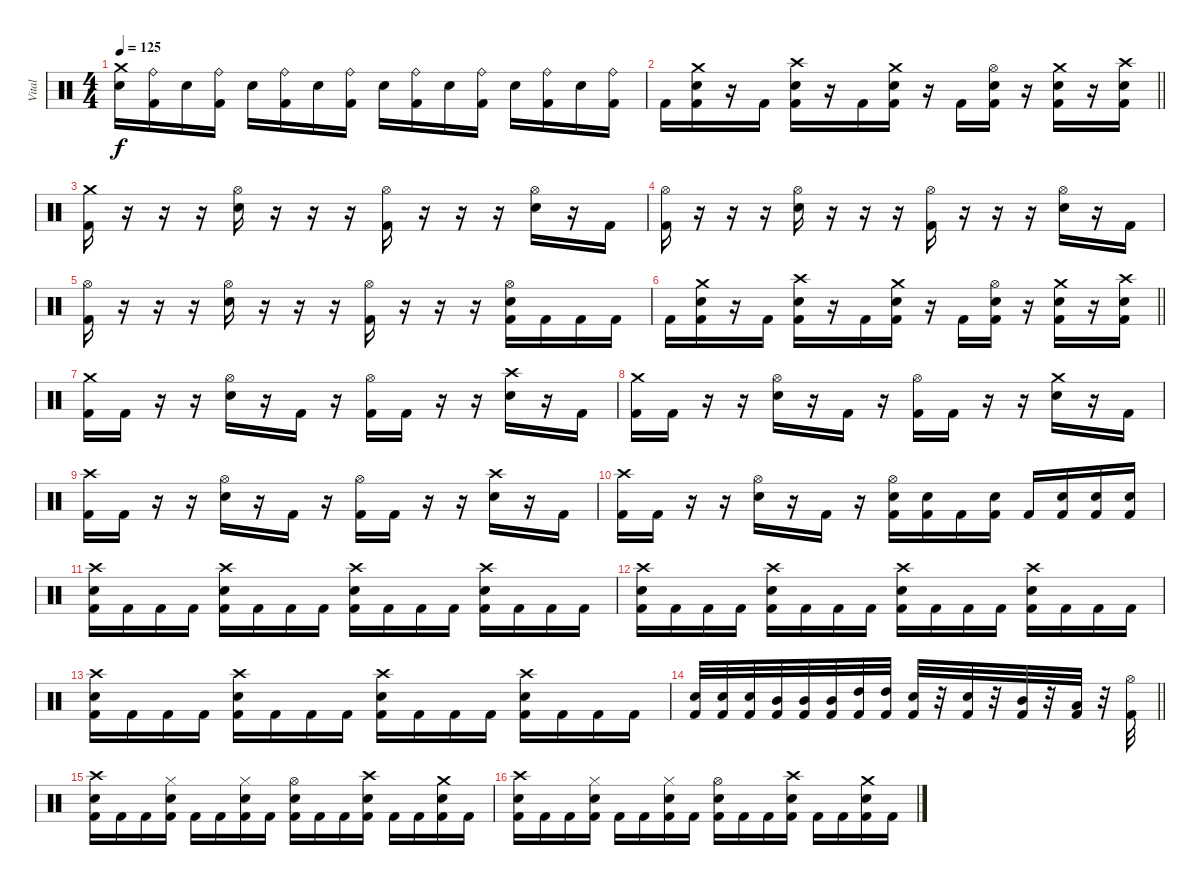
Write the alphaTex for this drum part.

\track ("Vital" "Vital") {instrument percussion}
\staff {score}
\articulation defaults
\ts (4 4)
\tempo 125
\clef neutral
\ks c
("Crash medium (hit)" "Snare (hit) 2").16{dy f} ("Ride (bell)" "Kick (hit) 2").16 "Snare (hit) 2".16 ("Ride (bell)" "Kick (hit) 2").16 "Snare (hit) 2".16 ("Ride (bell)" "Kick (hit) 2").16 "Snare (hit) 2".16 ("Ride (bell)" "Kick (hit) 2").16 "Snare (hit) 2".16 ("Ride (bell)" "Kick (hit) 2").16 "Snare (hit) 2".16 ("Ride (bell)" "Kick (hit) 2").16 "Snare (hit) 2".16 ("Ride (bell)" "Kick (hit) 2").16 "Snare (hit) 2".16 ("Ride (bell)" "Kick (hit) 2").16 |
\barLineRight lightlight "Kick (hit) 2".16
("Crash medium (hit)" "Snare (hit) 2" "Kick (hit) 2").16 r.16 "Kick (hit) 2".16 ("Crash high (hit)" "Snare (hit) 2" "Kick (hit) 2").16 r.16 "Kick (hit) 2".16 ("Crash medium (hit)" "Snare (hit) 2" "Kick (hit) 2").16 r.16 "Kick (hit) 2".16 ("Hi-Hat (open)" "Snare (hit) 2" "Kick (hit) 2").16 r.16 ("Crash medium (hit)" "Snare (hit) 2" "Kick (hit) 2").16 r.16 ("Crash high (hit)" "Snare (hit) 2" "Kick (hit) 2").16 |
("Crash medium (hit)" "Kick (hit) 2").16 r.16 r.16 r.16 ("Hi-Hat (open)" "Snare (hit) 2").16 r.16 r.16 r.16 ("Hi-Hat (open)" "Kick (hit) 2").16 r.16 r.16 r.16 ("Hi-Hat (open)" "Snare (hit) 2").16 r.16 "Kick (hit) 2".16 |
("Hi-Hat (open)" "Kick (hit) 2").16 r.16 r.16 r.16 ("Hi-Hat (open)" "Snare (hit) 2").16 r.16 r.16 r.16 ("Hi-Hat (open)" "Kick (hit) 2").16 r.16 r.16 r.16 ("Hi-Hat (open)" "Snare (hit) 2").16 r.16 "Kick (hit) 2".16 |
("Hi-Hat (open)" "Kick (hit) 2").16 r.16 r.16 r.16 ("Hi-Hat (open)" "Snare (hit) 2").16 r.16 r.16 r.16 ("Hi-Hat (open)" "Kick (hit) 2").16 r.16 r.16 r.16 ("Hi-Hat (open)" "Snare (hit) 2" "Kick (hit) 2").16 "Kick (hit) 2".16 "Kick (hit) 2".16 "Kick (hit) 2".16 |
\barLineRight lightlight "Kick (hit) 2".16
("Crash medium (hit)" "Snare (hit) 2" "Kick (hit) 2").16 r.16 "Kick (hit) 2".16 ("Crash high (hit)" "Snare (hit) 2" "Kick (hit) 2").16 r.16 "Kick (hit) 2".16 ("Crash medium (hit)" "Snare (hit) 2" "Kick (hit) 2").16 r.16 "Kick (hit) 2".16 ("Hi-Hat (open)" "Snare (hit) 2" "Kick (hit) 2").16 r.16 ("Crash medium (hit)" "Snare (hit) 2" "Kick (hit) 2").16 r.16 ("Crash high (hit)" "Snare (hit) 2" "Kick (hit) 2").16 |
("Crash medium (hit)" "Kick (hit) 2").16 "Kick (hit) 2".16 r.16 r.16 ("Hi-Hat (open)" "Snare (hit) 2").16 r.16 "Kick (hit) 2".16 r.16 ("Hi-Hat (open)" "Kick (hit) 2").16 "Kick (hit) 2".16 r.16 r.16 ("Crash high (hit)" "Snare (hit) 2").16 r.16 "Kick (hit) 2".16 |
("Crash medium (hit)" "Kick (hit) 2").16 "Kick (hit) 2".16 r.16 r.16 ("Hi-Hat (open)" "Snare (hit) 2").16 r.16 "Kick (hit) 2".16 r.16 ("Hi-Hat (open)" "Kick (hit) 2").16 "Kick (hit) 2".16 r.16 r.16 ("Crash medium (hit)" "Snare (hit) 2").16 r.16 "Kick (hit) 2".16 |
("Crash high (hit)" "Kick (hit) 2").16 "Kick (hit) 2".16 r.16 r.16 ("Hi-Hat (open)" "Snare (hit) 2").16 r.16 "Kick (hit) 2".16 r.16 ("Hi-Hat (open)" "Kick (hit) 2").16 "Kick (hit) 2".16 r.16 r.16 ("Crash high (hit)" "Snare (hit) 2").16 r.16 "Kick (hit) 2".16 |
("Crash high (hit)" "Kick (hit) 2").16 "Kick (hit) 2".16 r.16 r.16 ("Hi-Hat (open)" "Snare (hit) 2").16 r.16 "Kick (hit) 2".16 r.16 ("Hi-Hat (open)" "Snare (hit) 2" "Kick (hit) 2").16 ("Snare (hit) 2" "Kick (hit) 2").16 "Kick (hit) 2".16 ("Snare (hit) 2" "Kick (hit) 2").16 "Kick (hit) 2".16 ("Snare (hit) 2" "Kick (hit) 2").16 ("Snare (hit) 2" "Kick (hit) 2").16 ("Snare (hit) 2" "Kick (hit) 2").16 |
("Crash high (hit)" "Snare (hit) 2" "Kick (hit) 2").16 "Kick (hit) 2".16 "Kick (hit) 2".16 "Kick (hit) 2".16 ("Crash high (hit)" "Snare (hit) 2" "Kick (hit) 2").16 "Kick (hit) 2".16 "Kick (hit) 2".16 "Kick (hit) 2".16 ("Crash high (hit)" "Snare (hit) 2" "Kick (hit) 2").16 "Kick (hit) 2".16 "Kick (hit) 2".16 "Kick (hit) 2".16 ("Crash high (hit)" "Snare (hit) 2" "Kick (hit) 2").16 "Kick (hit) 2".16 "Kick (hit) 2".16 "Kick (hit) 2".16 |
("Crash high (hit)" "Snare (hit) 2" "Kick (hit) 2").16 "Kick (hit) 2".16 "Kick (hit) 2".16 "Kick (hit) 2".16 ("Crash high (hit)" "Snare (hit) 2" "Kick (hit) 2").16 "Kick (hit) 2".16 "Kick (hit) 2".16 "Kick (hit) 2".16 ("Crash high (hit)" "Snare (hit) 2" "Kick (hit) 2").16 "Kick (hit) 2".16 "Kick (hit) 2".16 "Kick (hit) 2".16 ("Crash high (hit)" "Snare (hit) 2" "Kick (hit) 2").16 "Kick (hit) 2".16 "Kick (hit) 2".16 "Kick (hit) 2".16 |
("Crash high (hit)" "Snare (hit) 2" "Kick (hit) 2").16 "Kick (hit) 2".16 "Kick (hit) 2".16 "Kick (hit) 2".16 ("Crash high (hit)" "Snare (hit) 2" "Kick (hit) 2").16 "Kick (hit) 2".16 "Kick (hit) 2".16 "Kick (hit) 2".16 ("Crash high (hit)" "Snare (hit) 2" "Kick (hit) 2").16 "Kick (hit) 2".16 "Kick (hit) 2".16 "Kick (hit) 2".16 ("Crash high (hit)" "Snare (hit) 2" "Kick (hit) 2").16 "Kick (hit) 2".16 "Kick (hit) 2".16 "Kick (hit) 2".16 |
\barLineRight lightlight
("Snare (hit) 2" "Kick (hit) 2").32 ("Snare (hit) 2" "Kick (hit) 2").32 ("Snare (hit) 2" "Kick (hit) 2").32 ("Mid Tom (hit)" "Kick (hit) 2").32 ("Mid Tom (hit)" "Kick (hit) 2").32 ("Mid Tom (hit)" "Kick (hit) 2").32 ("High Tom (hit)" "Kick (hit) 2").32 ("High Tom (hit)" "Kick (hit) 2").32 ("Snare (hit) 2" "Kick (hit) 2").32 r.32 ("Snare (hit) 2" "Kick (hit) 2").32 r.32 ("Mid Tom (hit)" "Kick (hit) 2").32 r.32 ("Low Tom (hit)" "Kick (hit) 2").32 r.32 ("Hi-Hat (open)" "Kick (hit) 2").32 |
("Crash high (hit)" "Snare (hit) 2" "Kick (hit) 2").16 "Kick (hit) 2".16 "Kick (hit) 2".16 ("Hi-Hat (closed)" "Snare (hit) 2" "Kick (hit) 2").16 "Kick (hit) 2".16 "Kick (hit) 2".16 ("Hi-Hat (closed)" "Snare (hit) 2" "Kick (hit) 2").16 "Kick (hit) 2".16 ("Hi-Hat (open)" "Snare (hit) 2" "Kick (hit) 2").16 "Kick (hit) 2".16 "Kick (hit) 2".16 ("Crash high (hit)" "Snare (hit) 2" "Kick (hit) 2").16 "Kick (hit) 2".16 "Kick (hit) 2".16 ("Crash medium (hit)" "Snare (hit) 2" "Kick (hit) 2").16 "Kick (hit) 2".16 |
("Crash high (hit)" "Snare (hit) 2" "Kick (hit) 2").16 "Kick (hit) 2".16 "Kick (hit) 2".16 ("Hi-Hat (closed)" "Snare (hit) 2" "Kick (hit) 2").16 "Kick (hit) 2".16 "Kick (hit) 2".16 ("Hi-Hat (closed)" "Snare (hit) 2" "Kick (hit) 2").16 "Kick (hit) 2".16 ("Hi-Hat (open)" "Snare (hit) 2" "Kick (hit) 2").16 "Kick (hit) 2".16 "Kick (hit) 2".16 ("Crash high (hit)" "Snare (hit) 2" "Kick (hit) 2").16 "Kick (hit) 2".16 "Kick (hit) 2".16 ("Crash medium (hit)" "Snare (hit) 2" "Kick (hit) 2").16 "Kick (hit) 2".16
